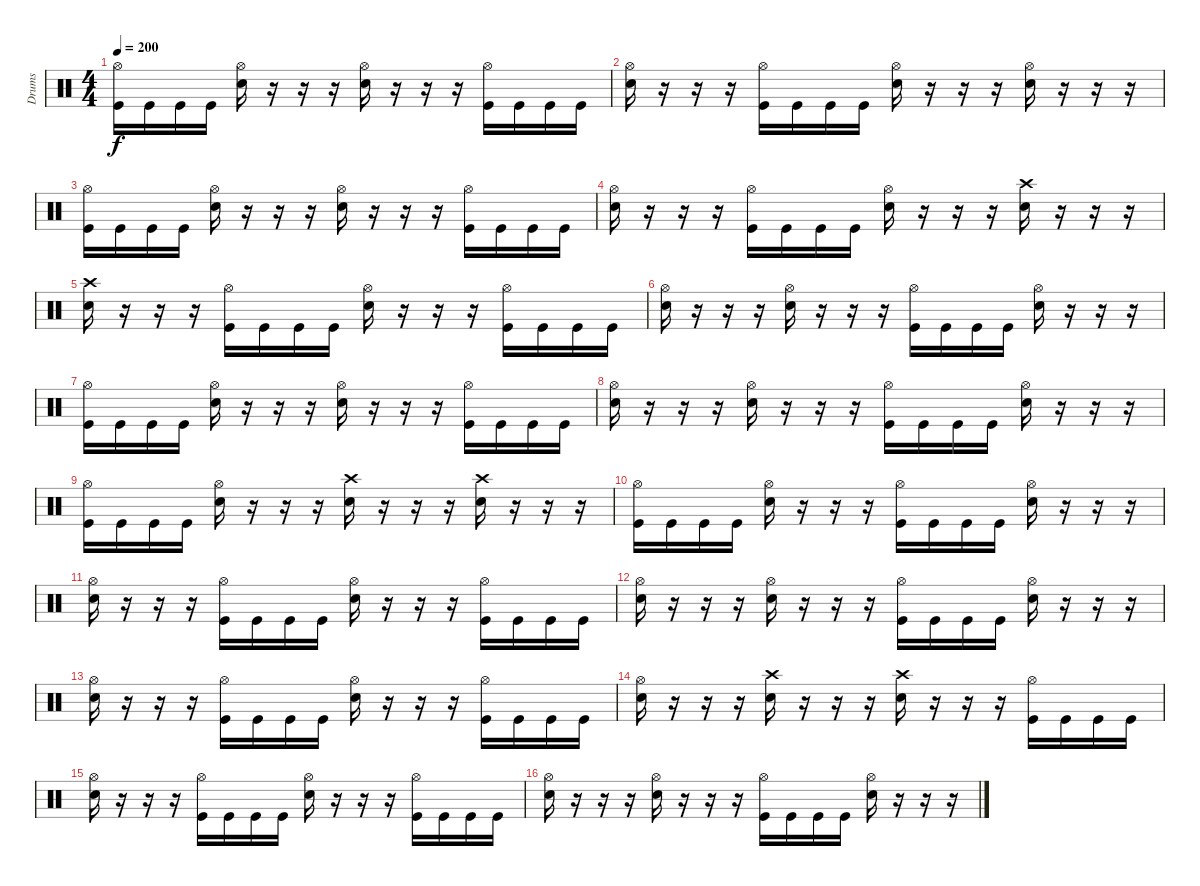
\track ("Drums" "Drums") {instrument percussion}
\staff {score}
\articulation defaults
\ts (4 4)
\tempo 200
\clef neutral
\ks c
("Hi-Hat (open)" "Kick (hit)").16{dy f} "Kick (hit)".16 "Kick (hit)".16 "Kick (hit)".16 ("Hi-Hat (open)" "Snare (hit) 2").16 r.16 r.16 r.16 ("Hi-Hat (open)" "Snare (hit) 2").16 r.16 r.16 r.16 ("Hi-Hat (open)" "Kick (hit)").16 "Kick (hit)".16 "Kick (hit)".16 "Kick (hit)".16 |
("Hi-Hat (open)" "Snare (hit) 2").16 r.16 r.16 r.16 ("Hi-Hat (open)" "Kick (hit)").16 "Kick (hit)".16 "Kick (hit)".16 "Kick (hit)".16 ("Hi-Hat (open)" "Snare (hit) 2").16 r.16 r.16 r.16 ("Hi-Hat (open)" "Snare (hit) 2").16 r.16 r.16 r.16 |
("Hi-Hat (open)" "Kick (hit)").16 "Kick (hit)".16 "Kick (hit)".16 "Kick (hit)".16 ("Hi-Hat (open)" "Snare (hit) 2").16 r.16 r.16 r.16 ("Hi-Hat (open)" "Snare (hit) 2").16 r.16 r.16 r.16 ("Hi-Hat (open)" "Kick (hit)").16 "Kick (hit)".16 "Kick (hit)".16 "Kick (hit)".16 |
("Hi-Hat (open)" "Snare (hit) 2").16 r.16 r.16 r.16 ("Hi-Hat (open)" "Kick (hit)").16 "Kick (hit)".16 "Kick (hit)".16 "Kick (hit)".16 ("Hi-Hat (open)" "Snare (hit) 2").16 r.16 r.16 r.16 ("Crash high (hit)" "Snare (hit) 2").16 r.16 r.16 r.16 |
("Crash high (hit)" "Snare (hit) 2").16 r.16 r.16 r.16 ("Hi-Hat (open)" "Kick (hit)").16 "Kick (hit)".16 "Kick (hit)".16 "Kick (hit)".16 ("Hi-Hat (open)" "Snare (hit) 2").16 r.16 r.16 r.16 ("Hi-Hat (open)" "Kick (hit)").16 "Kick (hit)".16 "Kick (hit)".16 "Kick (hit)".16 |
("Hi-Hat (open)" "Snare (hit) 2").16 r.16 r.16 r.16 ("Hi-Hat (open)" "Snare (hit) 2").16 r.16 r.16 r.16 ("Hi-Hat (open)" "Kick (hit)").16 "Kick (hit)".16 "Kick (hit)".16 "Kick (hit)".16 ("Hi-Hat (open)" "Snare (hit) 2").16 r.16 r.16 r.16 |
("Hi-Hat (open)" "Kick (hit)").16 "Kick (hit)".16 "Kick (hit)".16 "Kick (hit)".16 ("Hi-Hat (open)" "Snare (hit) 2").16 r.16 r.16 r.16 ("Hi-Hat (open)" "Snare (hit) 2").16 r.16 r.16 r.16 ("Hi-Hat (open)" "Kick (hit)").16 "Kick (hit)".16 "Kick (hit)".16 "Kick (hit)".16 |
("Hi-Hat (open)" "Snare (hit) 2").16 r.16 r.16 r.16 ("Hi-Hat (open)" "Snare (hit) 2").16 r.16 r.16 r.16 ("Hi-Hat (open)" "Kick (hit)").16 "Kick (hit)".16 "Kick (hit)".16 "Kick (hit)".16 ("Hi-Hat (open)" "Snare (hit) 2").16 r.16 r.16 r.16 |
("Hi-Hat (open)" "Kick (hit)").16 "Kick (hit)".16 "Kick (hit)".16 "Kick (hit)".16 ("Hi-Hat (open)" "Snare (hit) 2").16 r.16 r.16 r.16 ("Crash high (hit)" "Snare (hit) 2").16 r.16 r.16 r.16 ("Crash high (hit)" "Snare (hit) 2").16 r.16 r.16 r.16 |
("Hi-Hat (open)" "Kick (hit)").16 "Kick (hit)".16 "Kick (hit)".16 "Kick (hit)".16 ("Hi-Hat (open)" "Snare (hit) 2").16 r.16 r.16 r.16 ("Hi-Hat (open)" "Kick (hit)").16 "Kick (hit)".16 "Kick (hit)".16 "Kick (hit)".16 ("Hi-Hat (open)" "Snare (hit) 2").16 r.16 r.16 r.16 |
("Hi-Hat (open)" "Snare (hit) 2").16 r.16 r.16 r.16 ("Hi-Hat (open)" "Kick (hit)").16 "Kick (hit)".16 "Kick (hit)".16 "Kick (hit)".16 ("Hi-Hat (open)" "Snare (hit) 2").16 r.16 r.16 r.16 ("Hi-Hat (open)" "Kick (hit)").16 "Kick (hit)".16 "Kick (hit)".16 "Kick (hit)".16 |
("Hi-Hat (open)" "Snare (hit) 2").16 r.16 r.16 r.16 ("Hi-Hat (open)" "Snare (hit) 2").16 r.16 r.16 r.16 ("Hi-Hat (open)" "Kick (hit)").16 "Kick (hit)".16 "Kick (hit)".16 "Kick (hit)".16 ("Hi-Hat (open)" "Snare (hit) 2").16 r.16 r.16 r.16 |
("Hi-Hat (open)" "Snare (hit) 2").16 r.16 r.16 r.16 ("Hi-Hat (open)" "Kick (hit)").16 "Kick (hit)".16 "Kick (hit)".16 "Kick (hit)".16 ("Hi-Hat (open)" "Snare (hit) 2").16 r.16 r.16 r.16 ("Hi-Hat (open)" "Kick (hit)").16 "Kick (hit)".16 "Kick (hit)".16 "Kick (hit)".16 |
("Hi-Hat (open)" "Snare (hit) 2").16 r.16 r.16 r.16 ("Crash high (hit)" "Snare (hit) 2").16 r.16 r.16 r.16 ("Crash high (hit)" "Snare (hit) 2").16 r.16 r.16 r.16 ("Hi-Hat (open)" "Kick (hit)").16 "Kick (hit)".16 "Kick (hit)".16 "Kick (hit)".16 |
("Hi-Hat (open)" "Snare (hit) 2").16 r.16 r.16 r.16 ("Hi-Hat (open)" "Kick (hit)").16 "Kick (hit)".16 "Kick (hit)".16 "Kick (hit)".16 ("Hi-Hat (open)" "Snare (hit) 2").16 r.16 r.16 r.16 ("Hi-Hat (open)" "Kick (hit)").16 "Kick (hit)".16 "Kick (hit)".16 "Kick (hit)".16 |
("Hi-Hat (open)" "Snare (hit) 2").16 r.16 r.16 r.16 ("Hi-Hat (open)" "Snare (hit) 2").16 r.16 r.16 r.16 ("Hi-Hat (open)" "Kick (hit)").16 "Kick (hit)".16 "Kick (hit)".16 "Kick (hit)".16 ("Hi-Hat (open)" "Snare (hit) 2").16 r.16 r.16 r.16
